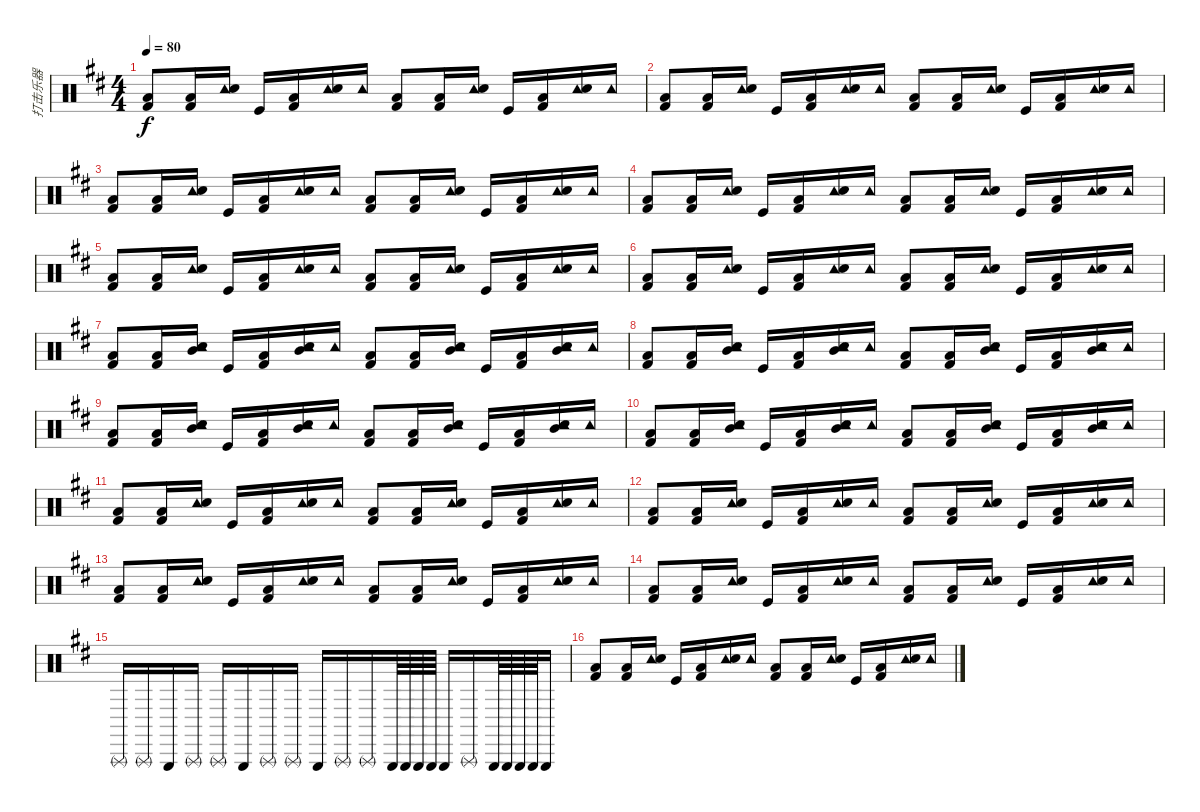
\track ("打击乐器" "打击乐器") {instrument percussion}
\staff {score}
\articulation defaults
\ts (4 4)
\tempo 80
\clef neutral
\ks bminor
("Kick (hit) 2" "Low Floor Tom (hit)").8{dy f} ("Kick (hit) 2" "Low Floor Tom (hit)").16 ("Tambourine (hit)" "Electric Snare (hit)").16 "Kick (hit)".16 ("Kick (hit) 2" "Low Floor Tom (hit)").16 ("Tambourine (hit)" "Electric Snare (hit)").16 "Tambourine (hit)".16 ("Kick (hit) 2" "Low Floor Tom (hit)").8 ("Kick (hit) 2" "Low Floor Tom (hit)").16 ("Tambourine (hit)" "Electric Snare (hit)").16 "Kick (hit)".16 ("Kick (hit) 2" "Low Floor Tom (hit)").16 ("Tambourine (hit)" "Electric Snare (hit)").16 "Tambourine (hit)".16 |
("Kick (hit) 2" "Low Floor Tom (hit)").8 ("Kick (hit) 2" "Low Floor Tom (hit)").16 ("Tambourine (hit)" "Electric Snare (hit)").16 "Kick (hit)".16 ("Kick (hit) 2" "Low Floor Tom (hit)").16 ("Tambourine (hit)" "Electric Snare (hit)").16 "Tambourine (hit)".16 ("Kick (hit) 2" "Low Floor Tom (hit)").8 ("Kick (hit) 2" "Low Floor Tom (hit)").16 ("Tambourine (hit)" "Electric Snare (hit)").16 "Kick (hit)".16 ("Kick (hit) 2" "Low Floor Tom (hit)").16 ("Tambourine (hit)" "Electric Snare (hit)").16 "Tambourine (hit)".16 |
("Kick (hit) 2" "Low Floor Tom (hit)").8 ("Kick (hit) 2" "Low Floor Tom (hit)").16 ("Tambourine (hit)" "Electric Snare (hit)").16 "Kick (hit)".16 ("Kick (hit) 2" "Low Floor Tom (hit)").16 ("Tambourine (hit)" "Electric Snare (hit)").16 "Tambourine (hit)".16 ("Kick (hit) 2" "Low Floor Tom (hit)").8 ("Kick (hit) 2" "Low Floor Tom (hit)").16 ("Tambourine (hit)" "Electric Snare (hit)").16 "Kick (hit)".16 ("Kick (hit) 2" "Low Floor Tom (hit)").16 ("Tambourine (hit)" "Electric Snare (hit)").16 "Tambourine (hit)".16 |
("Kick (hit) 2" "Low Floor Tom (hit)").8 ("Kick (hit) 2" "Low Floor Tom (hit)").16 ("Tambourine (hit)" "Electric Snare (hit)").16 "Kick (hit)".16 ("Kick (hit) 2" "Low Floor Tom (hit)").16 ("Tambourine (hit)" "Electric Snare (hit)").16 "Tambourine (hit)".16 ("Kick (hit) 2" "Low Floor Tom (hit)").8 ("Kick (hit) 2" "Low Floor Tom (hit)").16 ("Tambourine (hit)" "Electric Snare (hit)").16 "Kick (hit)".16 ("Kick (hit) 2" "Low Floor Tom (hit)").16 ("Tambourine (hit)" "Electric Snare (hit)").16 "Tambourine (hit)".16 |
("Kick (hit) 2" "Low Floor Tom (hit)").8 ("Kick (hit) 2" "Low Floor Tom (hit)").16 ("Tambourine (hit)" "Electric Snare (hit)").16 "Kick (hit)".16 ("Kick (hit) 2" "Low Floor Tom (hit)").16 ("Tambourine (hit)" "Electric Snare (hit)").16 "Tambourine (hit)".16 ("Kick (hit) 2" "Low Floor Tom (hit)").8 ("Kick (hit) 2" "Low Floor Tom (hit)").16 ("Tambourine (hit)" "Electric Snare (hit)").16 "Kick (hit)".16 ("Kick (hit) 2" "Low Floor Tom (hit)").16 ("Tambourine (hit)" "Electric Snare (hit)").16 "Tambourine (hit)".16 |
("Kick (hit) 2" "Low Floor Tom (hit)").8 ("Kick (hit) 2" "Low Floor Tom (hit)").16 ("Tambourine (hit)" "Electric Snare (hit)").16 "Kick (hit)".16 ("Kick (hit) 2" "Low Floor Tom (hit)").16 ("Tambourine (hit)" "Electric Snare (hit)").16 "Tambourine (hit)".16 ("Kick (hit) 2" "Low Floor Tom (hit)").8 ("Kick (hit) 2" "Low Floor Tom (hit)").16 ("Tambourine (hit)" "Electric Snare (hit)").16 "Kick (hit)".16 ("Kick (hit) 2" "Low Floor Tom (hit)").16 ("Tambourine (hit)" "Electric Snare (hit)").16 "Tambourine (hit)".16 |
("Kick (hit) 2" "Low Floor Tom (hit)").8 ("Kick (hit) 2" "Low Floor Tom (hit)").16 ("Tambourine (hit)" "Electric Snare (hit)" "Mid Tom (hit)").16 "Kick (hit)".16 ("Kick (hit) 2" "Low Floor Tom (hit)").16 ("Tambourine (hit)" "Electric Snare (hit)" "Mid Tom (hit)").16 "Tambourine (hit)".16 ("Kick (hit) 2" "Low Floor Tom (hit)").8 ("Kick (hit) 2" "Low Floor Tom (hit)").16 ("Tambourine (hit)" "Electric Snare (hit)" "Mid Tom (hit)").16 "Kick (hit)".16 ("Kick (hit) 2" "Low Floor Tom (hit)").16 ("Tambourine (hit)" "Electric Snare (hit)" "Mid Tom (hit)").16 "Tambourine (hit)".16 |
("Kick (hit) 2" "Low Floor Tom (hit)").8 ("Kick (hit) 2" "Low Floor Tom (hit)").16 ("Tambourine (hit)" "Electric Snare (hit)" "Mid Tom (hit)").16 "Kick (hit)".16 ("Kick (hit) 2" "Low Floor Tom (hit)").16 ("Tambourine (hit)" "Electric Snare (hit)" "Mid Tom (hit)").16 "Tambourine (hit)".16 ("Kick (hit) 2" "Low Floor Tom (hit)").8 ("Kick (hit) 2" "Low Floor Tom (hit)").16 ("Tambourine (hit)" "Electric Snare (hit)" "Mid Tom (hit)").16 "Kick (hit)".16 ("Kick (hit) 2" "Low Floor Tom (hit)").16 ("Tambourine (hit)" "Electric Snare (hit)" "Mid Tom (hit)").16 "Tambourine (hit)".16 |
("Kick (hit) 2" "Low Floor Tom (hit)").8 ("Kick (hit) 2" "Low Floor Tom (hit)").16 ("Tambourine (hit)" "Electric Snare (hit)" "Mid Tom (hit)").16 "Kick (hit)".16 ("Kick (hit) 2" "Low Floor Tom (hit)").16 ("Tambourine (hit)" "Electric Snare (hit)" "Mid Tom (hit)").16 "Tambourine (hit)".16 ("Kick (hit) 2" "Low Floor Tom (hit)").8 ("Kick (hit) 2" "Low Floor Tom (hit)").16 ("Tambourine (hit)" "Electric Snare (hit)" "Mid Tom (hit)").16 "Kick (hit)".16 ("Kick (hit) 2" "Low Floor Tom (hit)").16 ("Tambourine (hit)" "Electric Snare (hit)" "Mid Tom (hit)").16 "Tambourine (hit)".16 |
("Kick (hit) 2" "Low Floor Tom (hit)").8 ("Kick (hit) 2" "Low Floor Tom (hit)").16 ("Tambourine (hit)" "Electric Snare (hit)" "Mid Tom (hit)").16 "Kick (hit)".16 ("Kick (hit) 2" "Low Floor Tom (hit)").16 ("Tambourine (hit)" "Electric Snare (hit)" "Mid Tom (hit)").16 "Tambourine (hit)".16 ("Kick (hit) 2" "Low Floor Tom (hit)").8 ("Kick (hit) 2" "Low Floor Tom (hit)").16 ("Tambourine (hit)" "Electric Snare (hit)" "Mid Tom (hit)").16 "Kick (hit)".16 ("Kick (hit) 2" "Low Floor Tom (hit)").16 ("Tambourine (hit)" "Electric Snare (hit)" "Mid Tom (hit)").16 "Tambourine (hit)".16 |
("Kick (hit) 2" "Low Floor Tom (hit)").8 ("Kick (hit) 2" "Low Floor Tom (hit)").16 ("Tambourine (hit)" "Electric Snare (hit)").16 "Kick (hit)".16 ("Kick (hit) 2" "Low Floor Tom (hit)").16 ("Tambourine (hit)" "Electric Snare (hit)").16 "Tambourine (hit)".16 ("Kick (hit) 2" "Low Floor Tom (hit)").8 ("Kick (hit) 2" "Low Floor Tom (hit)").16 ("Tambourine (hit)" "Electric Snare (hit)").16 "Kick (hit)".16 ("Kick (hit) 2" "Low Floor Tom (hit)").16 ("Tambourine (hit)" "Electric Snare (hit)").16 "Tambourine (hit)".16 |
("Kick (hit) 2" "Low Floor Tom (hit)").8 ("Kick (hit) 2" "Low Floor Tom (hit)").16 ("Tambourine (hit)" "Electric Snare (hit)").16 "Kick (hit)".16 ("Kick (hit) 2" "Low Floor Tom (hit)").16 ("Tambourine (hit)" "Electric Snare (hit)").16 "Tambourine (hit)".16 ("Kick (hit) 2" "Low Floor Tom (hit)").8 ("Kick (hit) 2" "Low Floor Tom (hit)").16 ("Tambourine (hit)" "Electric Snare (hit)").16 "Kick (hit)".16 ("Kick (hit) 2" "Low Floor Tom (hit)").16 ("Tambourine (hit)" "Electric Snare (hit)").16 "Tambourine (hit)".16 |
("Kick (hit) 2" "Low Floor Tom (hit)").8 ("Kick (hit) 2" "Low Floor Tom (hit)").16 ("Tambourine (hit)" "Electric Snare (hit)").16 "Kick (hit)".16 ("Kick (hit) 2" "Low Floor Tom (hit)").16 ("Tambourine (hit)" "Electric Snare (hit)").16 "Tambourine (hit)".16 ("Kick (hit) 2" "Low Floor Tom (hit)").8 ("Kick (hit) 2" "Low Floor Tom (hit)").16 ("Tambourine (hit)" "Electric Snare (hit)").16 "Kick (hit)".16 ("Kick (hit) 2" "Low Floor Tom (hit)").16 ("Tambourine (hit)" "Electric Snare (hit)").16 "Tambourine (hit)".16 |
("Kick (hit) 2" "Low Floor Tom (hit)").8 ("Kick (hit) 2" "Low Floor Tom (hit)").16 ("Tambourine (hit)" "Electric Snare (hit)").16 "Kick (hit)".16 ("Kick (hit) 2" "Low Floor Tom (hit)").16 ("Tambourine (hit)" "Electric Snare (hit)").16 "Tambourine (hit)".16 ("Kick (hit) 2" "Low Floor Tom (hit)").8 ("Kick (hit) 2" "Low Floor Tom (hit)").16 ("Tambourine (hit)" "Electric Snare (hit)").16 "Kick (hit)".16 ("Kick (hit) 2" "Low Floor Tom (hit)").16 ("Tambourine (hit)" "Electric Snare (hit)").16 "Tambourine (hit)".16 |
"Triangle (rnute)".16 "Triangle (rnute)".16 "Triangle (hit)".16 "Triangle (rnute)".16 "Triangle (rnute)".16 "Triangle (hit)".16 "Triangle (rnute)".16 "Triangle (rnute)".16 "Triangle (hit)".16 "Triangle (rnute)".16 "Triangle (rnute)".16 "Triangle (hit)".64 "Triangle (hit)".64 "Triangle (hit)".64 "Triangle (hit)".64 "Triangle (hit)".16 "Triangle (rnute)".16 "Triangle (hit)".64 "Triangle (hit)".64 "Triangle (hit)".64 "Triangle (hit)".64 "Triangle (hit)".16 |
("Kick (hit) 2" "Low Floor Tom (hit)").8 ("Kick (hit) 2" "Low Floor Tom (hit)").16 ("Tambourine (hit)" "Electric Snare (hit)").16 "Kick (hit)".16 ("Kick (hit) 2" "Low Floor Tom (hit)").16 ("Tambourine (hit)" "Electric Snare (hit)").16 "Tambourine (hit)".16 ("Kick (hit) 2" "Low Floor Tom (hit)").8 ("Kick (hit) 2" "Low Floor Tom (hit)").16 ("Tambourine (hit)" "Electric Snare (hit)").16 "Kick (hit)".16 ("Kick (hit) 2" "Low Floor Tom (hit)").16 ("Tambourine (hit)" "Electric Snare (hit)").16 "Tambourine (hit)".16
